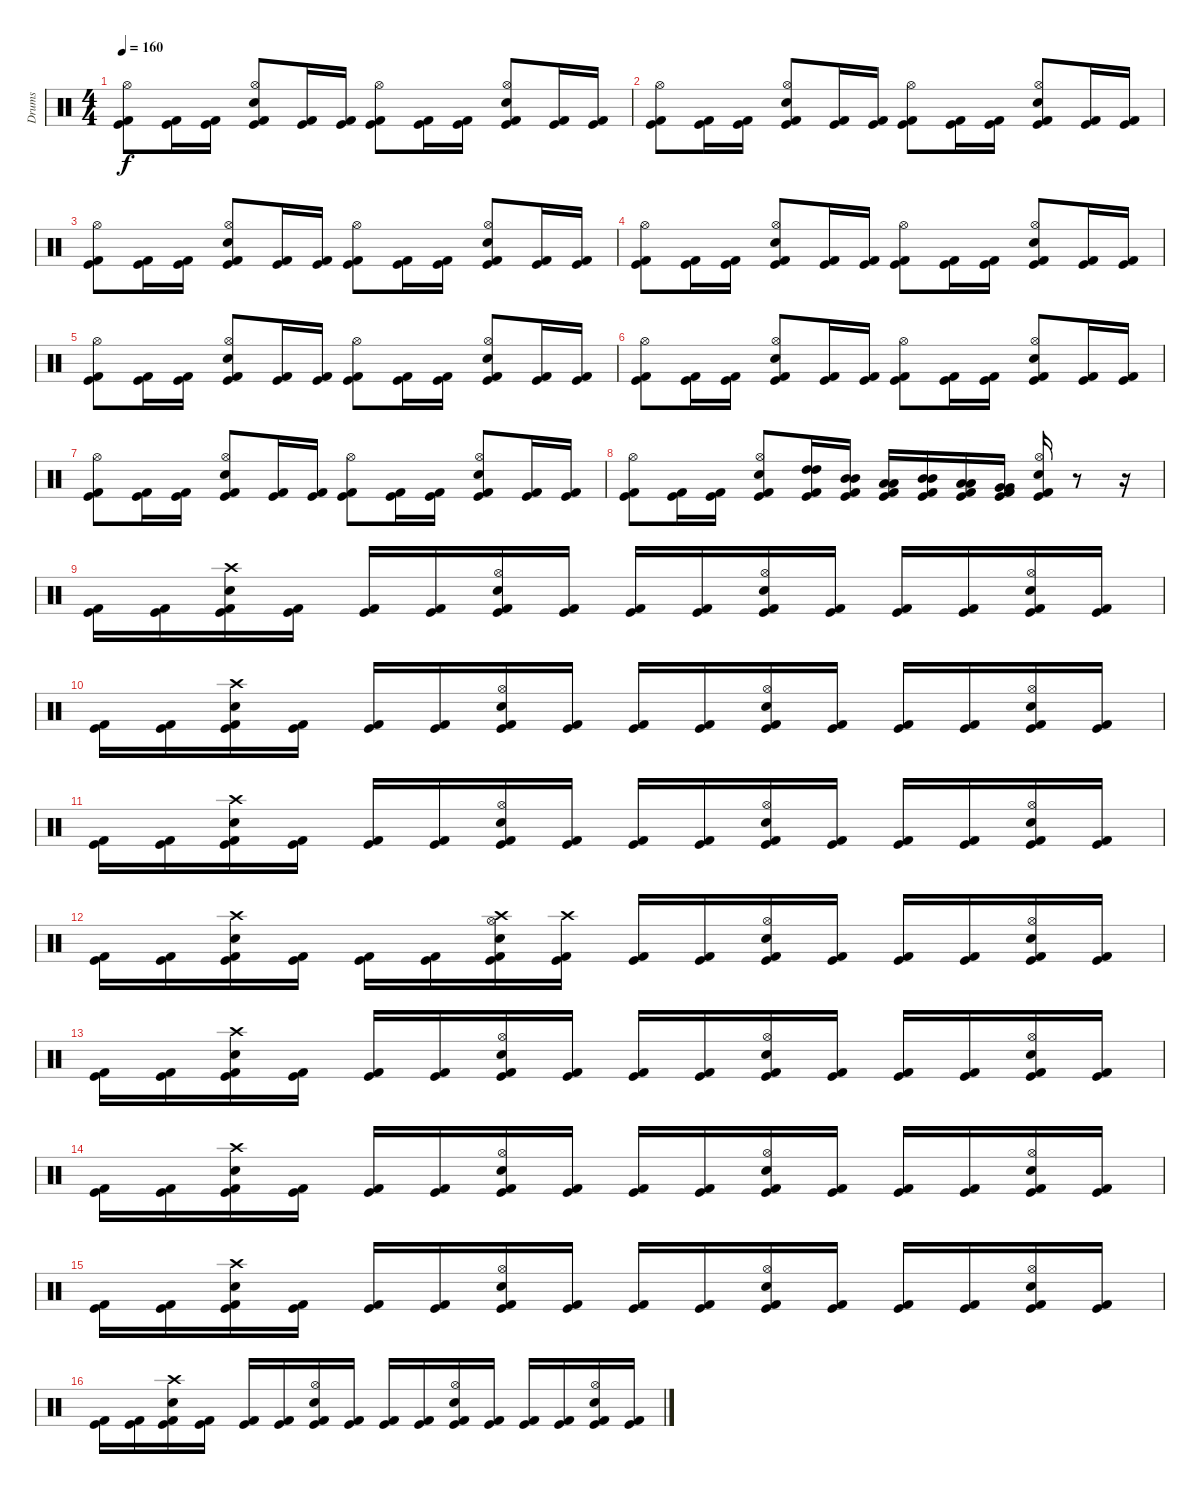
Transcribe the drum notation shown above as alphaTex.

\track ("Drums" "Drums") {instrument percussion}
\staff {score}
\articulation defaults
\ts (4 4)
\tempo 160
\clef neutral
\ks c
("Kick (hit) 2" "Kick (hit)" "Hi-Hat (open)").8{dy f} ("Kick (hit) 2" "Kick (hit)").16 ("Kick (hit) 2" "Kick (hit)").16 ("Kick (hit) 2" "Kick (hit)" "Snare (hit) 2" "Hi-Hat (open)").8 ("Kick (hit) 2" "Kick (hit)").16 ("Kick (hit) 2" "Kick (hit)").16 ("Kick (hit) 2" "Kick (hit)" "Hi-Hat (open)").8 ("Kick (hit) 2" "Kick (hit)").16 ("Kick (hit) 2" "Kick (hit)").16 ("Kick (hit) 2" "Kick (hit)" "Snare (hit) 2" "Hi-Hat (open)").8 ("Kick (hit) 2" "Kick (hit)").16 ("Kick (hit) 2" "Kick (hit)").16 |
("Kick (hit) 2" "Kick (hit)" "Hi-Hat (open)").8 ("Kick (hit) 2" "Kick (hit)").16 ("Kick (hit) 2" "Kick (hit)").16 ("Kick (hit) 2" "Kick (hit)" "Snare (hit) 2" "Hi-Hat (open)").8 ("Kick (hit) 2" "Kick (hit)").16 ("Kick (hit) 2" "Kick (hit)").16 ("Kick (hit) 2" "Kick (hit)" "Hi-Hat (open)").8 ("Kick (hit) 2" "Kick (hit)").16 ("Kick (hit) 2" "Kick (hit)").16 ("Kick (hit) 2" "Kick (hit)" "Snare (hit) 2" "Hi-Hat (open)").8 ("Kick (hit) 2" "Kick (hit)").16 ("Kick (hit) 2" "Kick (hit)").16 |
("Kick (hit) 2" "Kick (hit)" "Hi-Hat (open)").8 ("Kick (hit) 2" "Kick (hit)").16 ("Kick (hit) 2" "Kick (hit)").16 ("Kick (hit) 2" "Kick (hit)" "Snare (hit) 2" "Hi-Hat (open)").8 ("Kick (hit) 2" "Kick (hit)").16 ("Kick (hit) 2" "Kick (hit)").16 ("Kick (hit) 2" "Kick (hit)" "Hi-Hat (open)").8 ("Kick (hit) 2" "Kick (hit)").16 ("Kick (hit) 2" "Kick (hit)").16 ("Kick (hit) 2" "Kick (hit)" "Snare (hit) 2" "Hi-Hat (open)").8 ("Kick (hit) 2" "Kick (hit)").16 ("Kick (hit) 2" "Kick (hit)").16 |
("Kick (hit) 2" "Kick (hit)" "Hi-Hat (open)").8 ("Kick (hit) 2" "Kick (hit)").16 ("Kick (hit) 2" "Kick (hit)").16 ("Kick (hit) 2" "Kick (hit)" "Snare (hit) 2" "Hi-Hat (open)").8 ("Kick (hit) 2" "Kick (hit)").16 ("Kick (hit) 2" "Kick (hit)").16 ("Kick (hit) 2" "Kick (hit)" "Hi-Hat (open)").8 ("Kick (hit) 2" "Kick (hit)").16 ("Kick (hit) 2" "Kick (hit)").16 ("Kick (hit) 2" "Kick (hit)" "Snare (hit) 2" "Hi-Hat (open)").8 ("Kick (hit) 2" "Kick (hit)").16 ("Kick (hit) 2" "Kick (hit)").16 |
("Kick (hit) 2" "Kick (hit)" "Hi-Hat (open)").8 ("Kick (hit) 2" "Kick (hit)").16 ("Kick (hit) 2" "Kick (hit)").16 ("Kick (hit) 2" "Kick (hit)" "Snare (hit) 2" "Hi-Hat (open)").8 ("Kick (hit) 2" "Kick (hit)").16 ("Kick (hit) 2" "Kick (hit)").16 ("Kick (hit) 2" "Kick (hit)" "Hi-Hat (open)").8 ("Kick (hit) 2" "Kick (hit)").16 ("Kick (hit) 2" "Kick (hit)").16 ("Kick (hit) 2" "Kick (hit)" "Snare (hit) 2" "Hi-Hat (open)").8 ("Kick (hit) 2" "Kick (hit)").16 ("Kick (hit) 2" "Kick (hit)").16 |
("Kick (hit) 2" "Kick (hit)" "Hi-Hat (open)").8 ("Kick (hit) 2" "Kick (hit)").16 ("Kick (hit) 2" "Kick (hit)").16 ("Kick (hit) 2" "Kick (hit)" "Snare (hit) 2" "Hi-Hat (open)").8 ("Kick (hit) 2" "Kick (hit)").16 ("Kick (hit) 2" "Kick (hit)").16 ("Kick (hit) 2" "Kick (hit)" "Hi-Hat (open)").8 ("Kick (hit) 2" "Kick (hit)").16 ("Kick (hit) 2" "Kick (hit)").16 ("Kick (hit) 2" "Kick (hit)" "Snare (hit) 2" "Hi-Hat (open)").8 ("Kick (hit) 2" "Kick (hit)").16 ("Kick (hit) 2" "Kick (hit)").16 |
("Kick (hit) 2" "Kick (hit)" "Hi-Hat (open)").8 ("Kick (hit) 2" "Kick (hit)").16 ("Kick (hit) 2" "Kick (hit)").16 ("Kick (hit) 2" "Kick (hit)" "Snare (hit) 2" "Hi-Hat (open)").8 ("Kick (hit) 2" "Kick (hit)").16 ("Kick (hit) 2" "Kick (hit)").16 ("Kick (hit) 2" "Kick (hit)" "Hi-Hat (open)").8 ("Kick (hit) 2" "Kick (hit)").16 ("Kick (hit) 2" "Kick (hit)").16 ("Kick (hit) 2" "Kick (hit)" "Snare (hit) 2" "Hi-Hat (open)").8 ("Kick (hit) 2" "Kick (hit)").16 ("Kick (hit) 2" "Kick (hit)").16 |
("Kick (hit) 2" "Kick (hit)" "Hi-Hat (open)").8 ("Kick (hit) 2" "Kick (hit)").16 ("Kick (hit) 2" "Kick (hit)").16 ("Kick (hit) 2" "Kick (hit)" "Snare (hit) 2" "Hi-Hat (open)").8 ("Kick (hit) 2" "Kick (hit)" "High Tom (hit)" "High Tom (hit)").16 ("Kick (hit) 2" "Kick (hit)" "Mid Tom (hit)" "Mid Tom (hit)").16 ("Kick (hit) 2" "Kick (hit)" "Low Tom (hit)" "Low Tom (hit)").16 ("Kick (hit) 2" "Kick (hit)" "Mid Tom (hit)" "Mid Tom (hit)").16 ("Kick (hit) 2" "Kick (hit)" "Low Tom (hit)" "Low Tom (hit)").16 ("Kick (hit) 2" "Kick (hit)" "Very Low Tom (hit)" "Very Low Tom (hit)").16 ("Kick (hit) 2" "Kick (hit)" "Snare (hit) 2" "Hi-Hat (open)").16 r.8 r.16 |
("Kick (hit) 2" "Kick (hit)").16 ("Kick (hit) 2" "Kick (hit)").16 ("Kick (hit) 2" "Kick (hit)" "Crash high (hit)" "Snare (hit) 2").16 ("Kick (hit) 2" "Kick (hit)").16 ("Kick (hit) 2" "Kick (hit)").16 ("Kick (hit) 2" "Kick (hit)").16 ("Kick (hit) 2" "Kick (hit)" "Hi-Hat (open)" "Snare (hit) 2").16 ("Kick (hit) 2" "Kick (hit)").16 ("Kick (hit) 2" "Kick (hit)").16 ("Kick (hit) 2" "Kick (hit)").16 ("Kick (hit) 2" "Kick (hit)" "Hi-Hat (open)" "Snare (hit) 2").16 ("Kick (hit) 2" "Kick (hit)").16 ("Kick (hit) 2" "Kick (hit)").16 ("Kick (hit) 2" "Kick (hit)").16 ("Kick (hit) 2" "Kick (hit)" "Hi-Hat (open)" "Snare (hit) 2").16 ("Kick (hit) 2" "Kick (hit)").16 |
("Kick (hit) 2" "Kick (hit)").16 ("Kick (hit) 2" "Kick (hit)").16 ("Kick (hit) 2" "Kick (hit)" "Crash high (hit)" "Snare (hit) 2").16 ("Kick (hit) 2" "Kick (hit)").16 ("Kick (hit) 2" "Kick (hit)").16 ("Kick (hit) 2" "Kick (hit)").16 ("Kick (hit) 2" "Kick (hit)" "Hi-Hat (open)" "Snare (hit) 2").16 ("Kick (hit) 2" "Kick (hit)").16 ("Kick (hit) 2" "Kick (hit)").16 ("Kick (hit) 2" "Kick (hit)").16 ("Kick (hit) 2" "Kick (hit)" "Hi-Hat (open)" "Snare (hit) 2").16 ("Kick (hit) 2" "Kick (hit)").16 ("Kick (hit) 2" "Kick (hit)").16 ("Kick (hit) 2" "Kick (hit)").16 ("Kick (hit) 2" "Kick (hit)" "Hi-Hat (open)" "Snare (hit) 2").16 ("Kick (hit) 2" "Kick (hit)").16 |
("Kick (hit) 2" "Kick (hit)").16 ("Kick (hit) 2" "Kick (hit)").16 ("Kick (hit) 2" "Kick (hit)" "Crash high (hit)" "Snare (hit) 2").16 ("Kick (hit) 2" "Kick (hit)").16 ("Kick (hit) 2" "Kick (hit)").16 ("Kick (hit) 2" "Kick (hit)").16 ("Kick (hit) 2" "Kick (hit)" "Hi-Hat (open)" "Snare (hit) 2").16 ("Kick (hit) 2" "Kick (hit)").16 ("Kick (hit) 2" "Kick (hit)").16 ("Kick (hit) 2" "Kick (hit)").16 ("Kick (hit) 2" "Kick (hit)" "Hi-Hat (open)" "Snare (hit) 2").16 ("Kick (hit) 2" "Kick (hit)").16 ("Kick (hit) 2" "Kick (hit)").16 ("Kick (hit) 2" "Kick (hit)").16 ("Kick (hit) 2" "Kick (hit)" "Hi-Hat (open)" "Snare (hit) 2").16 ("Kick (hit) 2" "Kick (hit)").16 |
("Kick (hit) 2" "Kick (hit)").16 ("Kick (hit) 2" "Kick (hit)").16 ("Kick (hit) 2" "Kick (hit)" "Crash high (hit)" "Snare (hit) 2").16 ("Kick (hit) 2" "Kick (hit)").16 ("Kick (hit) 2" "Kick (hit)").16 ("Kick (hit) 2" "Kick (hit)").16 ("Kick (hit) 2" "Kick (hit)" "Hi-Hat (open)" "Snare (hit) 2" "Crash high (hit)").16 ("Kick (hit) 2" "Kick (hit)" "Crash high (hit)").16 ("Kick (hit) 2" "Kick (hit)").16 ("Kick (hit) 2" "Kick (hit)").16 ("Kick (hit) 2" "Kick (hit)" "Hi-Hat (open)" "Snare (hit) 2").16 ("Kick (hit) 2" "Kick (hit)").16 ("Kick (hit) 2" "Kick (hit)").16 ("Kick (hit) 2" "Kick (hit)").16 ("Kick (hit) 2" "Kick (hit)" "Hi-Hat (open)" "Snare (hit) 2").16 ("Kick (hit) 2" "Kick (hit)").16 |
("Kick (hit) 2" "Kick (hit)").16 ("Kick (hit) 2" "Kick (hit)").16 ("Kick (hit) 2" "Kick (hit)" "Crash high (hit)" "Snare (hit) 2").16 ("Kick (hit) 2" "Kick (hit)").16 ("Kick (hit) 2" "Kick (hit)").16 ("Kick (hit) 2" "Kick (hit)").16 ("Kick (hit) 2" "Kick (hit)" "Hi-Hat (open)" "Snare (hit) 2").16 ("Kick (hit) 2" "Kick (hit)").16 ("Kick (hit) 2" "Kick (hit)").16 ("Kick (hit) 2" "Kick (hit)").16 ("Kick (hit) 2" "Kick (hit)" "Hi-Hat (open)" "Snare (hit) 2").16 ("Kick (hit) 2" "Kick (hit)").16 ("Kick (hit) 2" "Kick (hit)").16 ("Kick (hit) 2" "Kick (hit)").16 ("Kick (hit) 2" "Kick (hit)" "Hi-Hat (open)" "Snare (hit) 2").16 ("Kick (hit) 2" "Kick (hit)").16 |
("Kick (hit) 2" "Kick (hit)").16 ("Kick (hit) 2" "Kick (hit)").16 ("Kick (hit) 2" "Kick (hit)" "Crash high (hit)" "Snare (hit) 2").16 ("Kick (hit) 2" "Kick (hit)").16 ("Kick (hit) 2" "Kick (hit)").16 ("Kick (hit) 2" "Kick (hit)").16 ("Kick (hit) 2" "Kick (hit)" "Hi-Hat (open)" "Snare (hit) 2").16 ("Kick (hit) 2" "Kick (hit)").16 ("Kick (hit) 2" "Kick (hit)").16 ("Kick (hit) 2" "Kick (hit)").16 ("Kick (hit) 2" "Kick (hit)" "Hi-Hat (open)" "Snare (hit) 2").16 ("Kick (hit) 2" "Kick (hit)").16 ("Kick (hit) 2" "Kick (hit)").16 ("Kick (hit) 2" "Kick (hit)").16 ("Kick (hit) 2" "Kick (hit)" "Hi-Hat (open)" "Snare (hit) 2").16 ("Kick (hit) 2" "Kick (hit)").16 |
("Kick (hit) 2" "Kick (hit)").16 ("Kick (hit) 2" "Kick (hit)").16 ("Kick (hit) 2" "Kick (hit)" "Crash high (hit)" "Snare (hit) 2").16 ("Kick (hit) 2" "Kick (hit)").16 ("Kick (hit) 2" "Kick (hit)").16 ("Kick (hit) 2" "Kick (hit)").16 ("Kick (hit) 2" "Kick (hit)" "Hi-Hat (open)" "Snare (hit) 2").16 ("Kick (hit) 2" "Kick (hit)").16 ("Kick (hit) 2" "Kick (hit)").16 ("Kick (hit) 2" "Kick (hit)").16 ("Kick (hit) 2" "Kick (hit)" "Hi-Hat (open)" "Snare (hit) 2").16 ("Kick (hit) 2" "Kick (hit)").16 ("Kick (hit) 2" "Kick (hit)").16 ("Kick (hit) 2" "Kick (hit)").16 ("Kick (hit) 2" "Kick (hit)" "Hi-Hat (open)" "Snare (hit) 2").16 ("Kick (hit) 2" "Kick (hit)").16 |
("Kick (hit) 2" "Kick (hit)").16 ("Kick (hit) 2" "Kick (hit)").16 ("Kick (hit) 2" "Kick (hit)" "Crash high (hit)" "Snare (hit) 2").16 ("Kick (hit) 2" "Kick (hit)").16 ("Kick (hit) 2" "Kick (hit)").16 ("Kick (hit) 2" "Kick (hit)").16 ("Kick (hit) 2" "Kick (hit)" "Hi-Hat (open)" "Snare (hit) 2").16 ("Kick (hit) 2" "Kick (hit)").16 ("Kick (hit) 2" "Kick (hit)").16 ("Kick (hit) 2" "Kick (hit)").16 ("Kick (hit) 2" "Kick (hit)" "Hi-Hat (open)" "Snare (hit) 2").16 ("Kick (hit) 2" "Kick (hit)").16 ("Kick (hit) 2" "Kick (hit)").16 ("Kick (hit) 2" "Kick (hit)").16 ("Kick (hit) 2" "Kick (hit)" "Hi-Hat (open)" "Snare (hit) 2").16 ("Kick (hit) 2" "Kick (hit)").16
